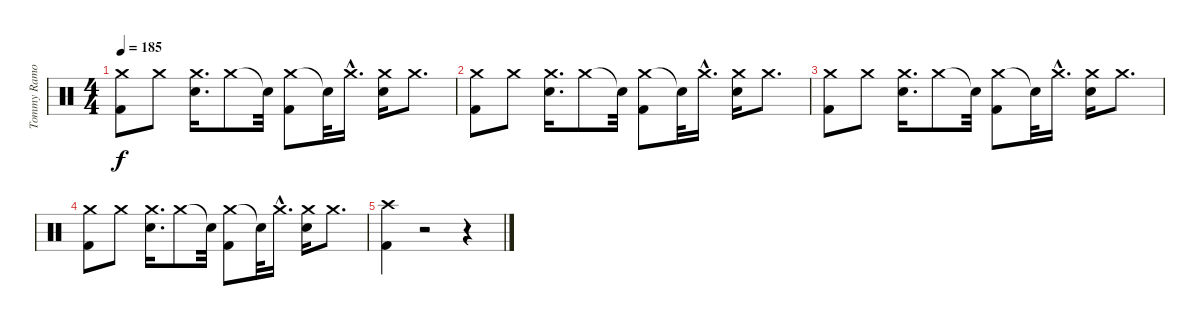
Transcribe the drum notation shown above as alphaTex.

\track ("Tommy Ramone" "Tommy Ramo") {instrument percussion}
\staff {score}
\articulation defaults
\ts (4 4)
\tempo 185
\clef neutral
\ks c
("Crash medium (hit)" "Kick (hit) 2").8{dy f} "Crash medium (hit)".8 ("Crash medium (hit)" "Snare (hit) 2").16{d} "Crash medium (hit)".8 "Snare (hit)"{t}.32 ("Crash medium (hit)" "Kick (hit) 2").8 "Snare (hit)"{t}.32 "Crash medium (hit)"{hac}.16{d} ("Crash medium (hit)" "Snare (hit) 2").16 "Crash medium (hit)".8{d} |
("Crash medium (hit)" "Kick (hit) 2").8 "Crash medium (hit)".8 ("Crash medium (hit)" "Snare (hit) 2").16{d} "Crash medium (hit)".8 "Snare (hit)"{t}.32 ("Crash medium (hit)" "Kick (hit) 2").8 "Snare (hit)"{t}.32 "Crash medium (hit)"{hac}.16{d} ("Crash medium (hit)" "Snare (hit) 2").16 "Crash medium (hit)".8{d} |
("Crash medium (hit)" "Kick (hit) 2").8 "Crash medium (hit)".8 ("Crash medium (hit)" "Snare (hit) 2").16{d} "Crash medium (hit)".8 "Snare (hit)"{t}.32 ("Crash medium (hit)" "Kick (hit) 2").8 "Snare (hit)"{t}.32 "Crash medium (hit)"{hac}.16{d} ("Crash medium (hit)" "Snare (hit) 2").16 "Crash medium (hit)".8{d} |
("Crash medium (hit)" "Kick (hit) 2").8 "Crash medium (hit)".8 ("Crash medium (hit)" "Snare (hit) 2").16{d} "Crash medium (hit)".8 "Snare (hit)"{t}.32 ("Crash medium (hit)" "Kick (hit) 2").8 "Snare (hit)"{t}.32 "Crash medium (hit)"{hac}.16{d} ("Crash medium (hit)" "Snare (hit) 2").16 "Crash medium (hit)".8{d} |
("Crash high (hit)" "Kick (hit) 2").4 r.2 r.4
